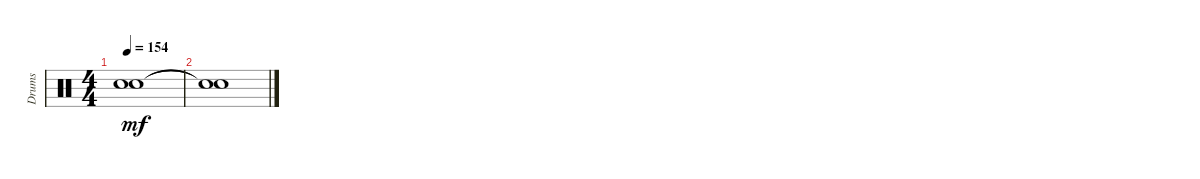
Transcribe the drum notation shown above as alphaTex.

\track ("Drums" "Drums") {instrument percussion}
\staff {score}
\articulation defaults
\ts (4 4)
\tempo 154
\clef neutral
\ks c
("Snare (hit)"{t} "Snare (hit)"{t}).1{dy mf} |
("Snare (hit)"{t} "Snare (hit)"{t}).1
